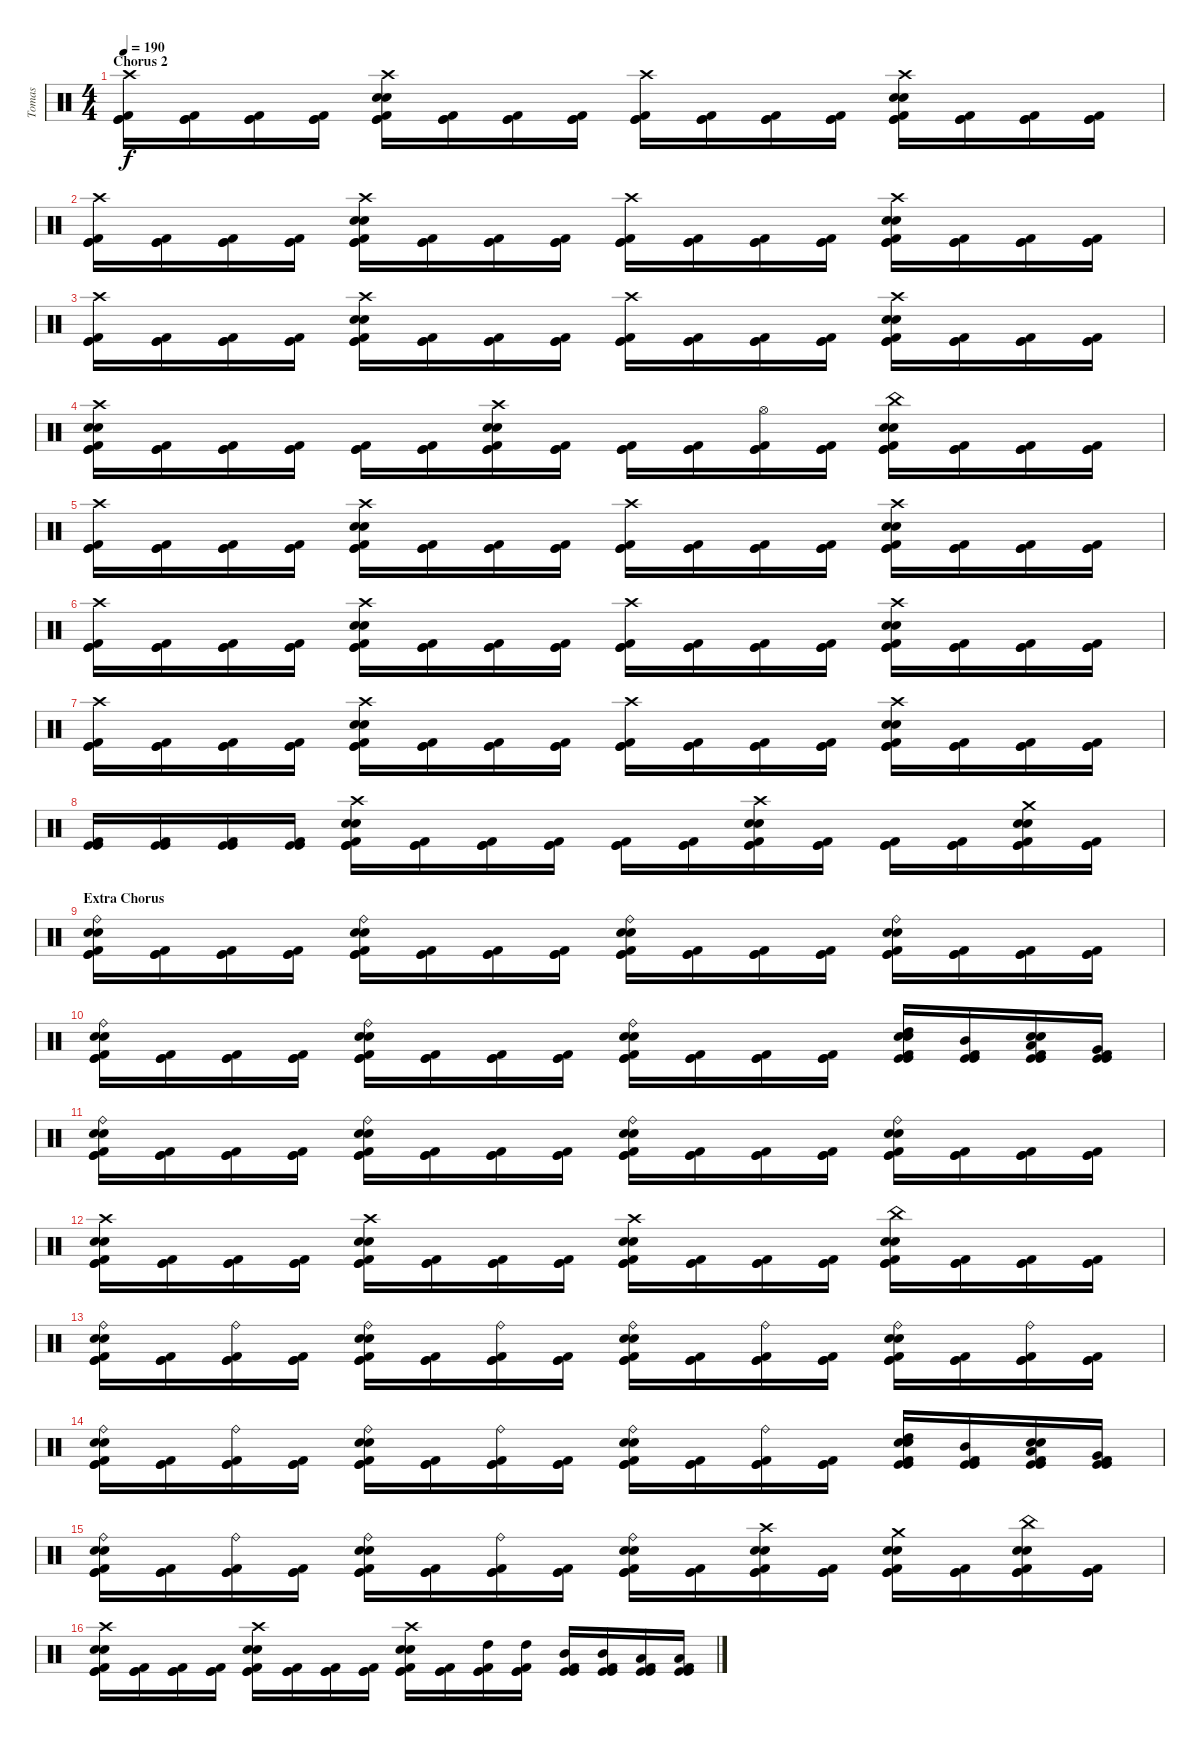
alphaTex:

\track ("Tomas" "Tomas") {instrument percussion}
\staff {score}
\articulation defaults
\ts (4 4)
\section ("" "Chorus 2")
\tempo 190
\clef neutral
\ks c
("Crash high (hit)" "Kick (hit)" "Kick (hit)" "Kick (hit) 2").16{dy f} ("Kick (hit)" "Kick (hit)" "Kick (hit) 2").16 ("Kick (hit)" "Kick (hit)" "Kick (hit) 2").16 ("Kick (hit)" "Kick (hit)" "Kick (hit) 2").16 ("Crash high (hit)" "Kick (hit)" "Electric Snare (hit)" "Electric Snare (hit)" "Kick (hit)" "Kick (hit) 2").16 ("Kick (hit)" "Kick (hit)" "Kick (hit) 2").16 ("Kick (hit)" "Kick (hit)" "Kick (hit) 2").16 ("Kick (hit)" "Kick (hit)" "Kick (hit) 2").16 ("Crash high (hit)" "Kick (hit)" "Kick (hit)" "Kick (hit) 2").16 ("Kick (hit)" "Kick (hit)" "Kick (hit) 2").16 ("Kick (hit)" "Kick (hit)" "Kick (hit) 2").16 ("Kick (hit)" "Kick (hit)" "Kick (hit) 2").16 ("Crash high (hit)" "Kick (hit)" "Electric Snare (hit)" "Electric Snare (hit)" "Kick (hit)" "Kick (hit) 2").16 ("Kick (hit)" "Kick (hit)" "Kick (hit) 2").16 ("Kick (hit)" "Kick (hit)" "Kick (hit) 2").16 ("Kick (hit)" "Kick (hit)" "Kick (hit) 2").16 |
("Crash high (hit)" "Kick (hit)" "Kick (hit)" "Kick (hit) 2").16 ("Kick (hit)" "Kick (hit)" "Kick (hit) 2").16 ("Kick (hit)" "Kick (hit)" "Kick (hit) 2").16 ("Kick (hit)" "Kick (hit)" "Kick (hit) 2").16 ("Crash high (hit)" "Kick (hit)" "Electric Snare (hit)" "Electric Snare (hit)" "Kick (hit)" "Kick (hit) 2").16 ("Kick (hit)" "Kick (hit)" "Kick (hit) 2").16 ("Kick (hit)" "Kick (hit)" "Kick (hit) 2").16 ("Kick (hit)" "Kick (hit)" "Kick (hit) 2").16 ("Crash high (hit)" "Kick (hit)" "Kick (hit)" "Kick (hit) 2").16 ("Kick (hit)" "Kick (hit)" "Kick (hit) 2").16 ("Kick (hit)" "Kick (hit)" "Kick (hit) 2").16 ("Kick (hit)" "Kick (hit)" "Kick (hit) 2").16 ("Crash high (hit)" "Kick (hit)" "Electric Snare (hit)" "Electric Snare (hit)" "Kick (hit)" "Kick (hit) 2").16 ("Kick (hit)" "Kick (hit)" "Kick (hit) 2").16 ("Kick (hit)" "Kick (hit)" "Kick (hit) 2").16 ("Kick (hit)" "Kick (hit)" "Kick (hit) 2").16 |
("Crash high (hit)" "Kick (hit)" "Kick (hit)" "Kick (hit) 2").16 ("Kick (hit)" "Kick (hit)" "Kick (hit) 2").16 ("Kick (hit)" "Kick (hit)" "Kick (hit) 2").16 ("Kick (hit)" "Kick (hit)" "Kick (hit) 2").16 ("Crash high (hit)" "Kick (hit)" "Electric Snare (hit)" "Electric Snare (hit)" "Kick (hit)" "Kick (hit) 2").16 ("Kick (hit)" "Kick (hit)" "Kick (hit) 2").16 ("Kick (hit)" "Kick (hit)" "Kick (hit) 2").16 ("Kick (hit)" "Kick (hit)" "Kick (hit) 2").16 ("Crash high (hit)" "Kick (hit)" "Kick (hit)" "Kick (hit) 2").16 ("Kick (hit)" "Kick (hit)" "Kick (hit) 2").16 ("Kick (hit)" "Kick (hit)" "Kick (hit) 2").16 ("Kick (hit)" "Kick (hit)" "Kick (hit) 2").16 ("Crash high (hit)" "Kick (hit)" "Electric Snare (hit)" "Electric Snare (hit)" "Kick (hit)" "Kick (hit) 2").16 ("Kick (hit)" "Kick (hit)" "Kick (hit) 2").16 ("Kick (hit)" "Kick (hit)" "Kick (hit) 2").16 ("Kick (hit)" "Kick (hit)" "Kick (hit) 2").16 |
("Crash high (hit)" "Kick (hit)" "Electric Snare (hit)" "Electric Snare (hit)" "Kick (hit)" "Kick (hit) 2").16 ("Kick (hit)" "Kick (hit)" "Kick (hit) 2").16 ("Kick (hit)" "Kick (hit)" "Kick (hit) 2").16 ("Kick (hit)" "Kick (hit)" "Kick (hit) 2").16 ("Kick (hit)" "Kick (hit)" "Kick (hit) 2").16 ("Kick (hit)" "Kick (hit)" "Kick (hit) 2").16 ("Crash high (hit)" "Kick (hit)" "Electric Snare (hit)" "Electric Snare (hit)" "Kick (hit)" "Kick (hit) 2").16 ("Kick (hit)" "Kick (hit)" "Kick (hit) 2").16 ("Kick (hit)" "Kick (hit)" "Kick (hit) 2").16 ("Kick (hit)" "Kick (hit)" "Kick (hit) 2").16 ("Hi-Hat (open)" "Kick (hit)" "Kick (hit)" "Kick (hit) 2").16 ("Kick (hit)" "Kick (hit)" "Kick (hit) 2").16 ("China (hit)" "Kick (hit)" "Electric Snare (hit)" "Electric Snare (hit)" "Kick (hit)" "Kick (hit) 2").16 ("Kick (hit)" "Kick (hit)" "Kick (hit) 2").16 ("Kick (hit)" "Kick (hit)" "Kick (hit) 2").16 ("Kick (hit)" "Kick (hit)" "Kick (hit) 2").16 |
("Crash high (hit)" "Kick (hit)" "Kick (hit)" "Kick (hit) 2").16 ("Kick (hit)" "Kick (hit)" "Kick (hit) 2").16 ("Kick (hit)" "Kick (hit)" "Kick (hit) 2").16 ("Kick (hit)" "Kick (hit)" "Kick (hit) 2").16 ("Crash high (hit)" "Kick (hit)" "Electric Snare (hit)" "Electric Snare (hit)" "Kick (hit)" "Kick (hit) 2").16 ("Kick (hit)" "Kick (hit)" "Kick (hit) 2").16 ("Kick (hit)" "Kick (hit)" "Kick (hit) 2").16 ("Kick (hit)" "Kick (hit)" "Kick (hit) 2").16 ("Crash high (hit)" "Kick (hit)" "Kick (hit)" "Kick (hit) 2").16 ("Kick (hit)" "Kick (hit)" "Kick (hit) 2").16 ("Kick (hit)" "Kick (hit)" "Kick (hit) 2").16 ("Kick (hit)" "Kick (hit)" "Kick (hit) 2").16 ("Crash high (hit)" "Kick (hit)" "Electric Snare (hit)" "Electric Snare (hit)" "Kick (hit)" "Kick (hit) 2").16 ("Kick (hit)" "Kick (hit)" "Kick (hit) 2").16 ("Kick (hit)" "Kick (hit)" "Kick (hit) 2").16 ("Kick (hit)" "Kick (hit)" "Kick (hit) 2").16 |
("Crash high (hit)" "Kick (hit)" "Kick (hit)" "Kick (hit) 2").16 ("Kick (hit)" "Kick (hit)" "Kick (hit) 2").16 ("Kick (hit)" "Kick (hit)" "Kick (hit) 2").16 ("Kick (hit)" "Kick (hit)" "Kick (hit) 2").16 ("Crash high (hit)" "Kick (hit)" "Electric Snare (hit)" "Electric Snare (hit)" "Kick (hit)" "Kick (hit) 2").16 ("Kick (hit)" "Kick (hit)" "Kick (hit) 2").16 ("Kick (hit)" "Kick (hit)" "Kick (hit) 2").16 ("Kick (hit)" "Kick (hit)" "Kick (hit) 2").16 ("Crash high (hit)" "Kick (hit)" "Kick (hit)" "Kick (hit) 2").16 ("Kick (hit)" "Kick (hit)" "Kick (hit) 2").16 ("Kick (hit)" "Kick (hit)" "Kick (hit) 2").16 ("Kick (hit)" "Kick (hit)" "Kick (hit) 2").16 ("Crash high (hit)" "Kick (hit)" "Electric Snare (hit)" "Electric Snare (hit)" "Kick (hit)" "Kick (hit) 2").16 ("Kick (hit)" "Kick (hit)" "Kick (hit) 2").16 ("Kick (hit)" "Kick (hit)" "Kick (hit) 2").16 ("Kick (hit)" "Kick (hit)" "Kick (hit) 2").16 |
("Crash high (hit)" "Kick (hit)" "Kick (hit)" "Kick (hit) 2").16 ("Kick (hit)" "Kick (hit)" "Kick (hit) 2").16 ("Kick (hit)" "Kick (hit)" "Kick (hit) 2").16 ("Kick (hit)" "Kick (hit)" "Kick (hit) 2").16 ("Crash high (hit)" "Kick (hit)" "Electric Snare (hit)" "Electric Snare (hit)" "Kick (hit)" "Kick (hit) 2").16 ("Kick (hit)" "Kick (hit)" "Kick (hit) 2").16 ("Kick (hit)" "Kick (hit)" "Kick (hit) 2").16 ("Kick (hit)" "Kick (hit)" "Kick (hit) 2").16 ("Crash high (hit)" "Kick (hit)" "Kick (hit)" "Kick (hit) 2").16 ("Kick (hit)" "Kick (hit)" "Kick (hit) 2").16 ("Kick (hit)" "Kick (hit)" "Kick (hit) 2").16 ("Kick (hit)" "Kick (hit)" "Kick (hit) 2").16 ("Crash high (hit)" "Kick (hit)" "Electric Snare (hit)" "Electric Snare (hit)" "Kick (hit)" "Kick (hit) 2").16 ("Kick (hit)" "Kick (hit)" "Kick (hit) 2").16 ("Kick (hit)" "Kick (hit)" "Kick (hit) 2").16 ("Kick (hit)" "Kick (hit)" "Kick (hit) 2").16 |
("Kick (hit)" "Kick (hit)" "Kick (hit) 2").16 ("Kick (hit)" "Kick (hit)" "Kick (hit) 2").16 ("Kick (hit)" "Kick (hit)" "Kick (hit) 2").16 ("Kick (hit)" "Kick (hit)" "Kick (hit) 2").16 ("Crash high (hit)" "Kick (hit)" "Electric Snare (hit)" "Electric Snare (hit)" "Kick (hit)" "Kick (hit) 2").16 ("Kick (hit)" "Kick (hit)" "Kick (hit) 2").16 ("Kick (hit)" "Kick (hit)" "Kick (hit) 2").16 ("Kick (hit)" "Kick (hit)" "Kick (hit) 2").16 ("Kick (hit)" "Kick (hit)" "Kick (hit) 2").16 ("Kick (hit)" "Kick (hit)" "Kick (hit) 2").16 ("Crash high (hit)" "Kick (hit)" "Electric Snare (hit)" "Electric Snare (hit)" "Kick (hit)" "Kick (hit) 2").16 ("Kick (hit)" "Kick (hit)" "Kick (hit) 2").16 ("Kick (hit)" "Kick (hit)" "Kick (hit) 2").16 ("Kick (hit)" "Kick (hit)" "Kick (hit) 2").16 ("Crash medium (hit)" "Kick (hit)" "Electric Snare (hit)" "Electric Snare (hit)" "Kick (hit)" "Kick (hit) 2").16 ("Kick (hit)" "Kick (hit)" "Kick (hit) 2").16 |
\section ("" "Extra Chorus")
("Ride (bell)" "Kick (hit)" "Electric Snare (hit)" "Electric Snare (hit)" "Kick (hit)" "Kick (hit) 2").16 ("Kick (hit)" "Kick (hit)" "Kick (hit) 2").16 ("Kick (hit)" "Kick (hit)" "Kick (hit) 2").16 ("Kick (hit)" "Kick (hit)" "Kick (hit) 2").16 ("Ride (bell)" "Kick (hit)" "Electric Snare (hit)" "Electric Snare (hit)" "Kick (hit)" "Kick (hit) 2").16 ("Kick (hit)" "Kick (hit)" "Kick (hit) 2").16 ("Kick (hit)" "Kick (hit)" "Kick (hit) 2").16 ("Kick (hit)" "Kick (hit)" "Kick (hit) 2").16 ("Ride (bell)" "Kick (hit)" "Electric Snare (hit)" "Electric Snare (hit)" "Kick (hit)" "Kick (hit) 2").16 ("Kick (hit)" "Kick (hit)" "Kick (hit) 2").16 ("Kick (hit)" "Kick (hit)" "Kick (hit) 2").16 ("Kick (hit)" "Kick (hit)" "Kick (hit) 2").16 ("Ride (bell)" "Kick (hit)" "Electric Snare (hit)" "Electric Snare (hit)" "Kick (hit)" "Kick (hit) 2").16 ("Kick (hit)" "Kick (hit)" "Kick (hit) 2").16 ("Kick (hit)" "Kick (hit)" "Kick (hit) 2").16 ("Kick (hit)" "Kick (hit)" "Kick (hit) 2").16 |
("Ride (bell)" "Kick (hit)" "Electric Snare (hit)" "Electric Snare (hit)" "Kick (hit)" "Kick (hit) 2").16 ("Kick (hit)" "Kick (hit)" "Kick (hit) 2").16 ("Kick (hit)" "Kick (hit)" "Kick (hit) 2").16 ("Kick (hit)" "Kick (hit)" "Kick (hit) 2").16 ("Ride (bell)" "Kick (hit)" "Electric Snare (hit)" "Electric Snare (hit)" "Kick (hit)" "Kick (hit) 2").16 ("Kick (hit)" "Kick (hit)" "Kick (hit) 2").16 ("Kick (hit)" "Kick (hit)" "Kick (hit) 2").16 ("Kick (hit)" "Kick (hit)" "Kick (hit) 2").16 ("Ride (bell)" "Kick (hit)" "Electric Snare (hit)" "Electric Snare (hit)" "Kick (hit)" "Kick (hit) 2").16 ("Kick (hit)" "Kick (hit)" "Kick (hit) 2").16 ("Kick (hit)" "Kick (hit)" "Kick (hit) 2").16 ("Kick (hit)" "Kick (hit)" "Kick (hit) 2").16 ("High Tom (hit)" "Kick (hit)" "Electric Snare (hit)" "Electric Snare (hit)" "Kick (hit)" "Kick (hit) 2").16 ("Mid Tom (hit)" "Kick (hit)" "Kick (hit)" "Kick (hit) 2").16 ("Low Tom (hit)" "Kick (hit)" "Electric Snare (hit)" "Electric Snare (hit)" "Kick (hit)" "Kick (hit) 2").16 ("Very Low Tom (hit)" "Kick (hit)" "Kick (hit)" "Kick (hit) 2").16 |
("Ride (bell)" "Kick (hit)" "Electric Snare (hit)" "Electric Snare (hit)" "Kick (hit)" "Kick (hit) 2").16 ("Kick (hit)" "Kick (hit)" "Kick (hit) 2").16 ("Kick (hit)" "Kick (hit)" "Kick (hit) 2").16 ("Kick (hit)" "Kick (hit)" "Kick (hit) 2").16 ("Ride (bell)" "Kick (hit)" "Electric Snare (hit)" "Electric Snare (hit)" "Kick (hit)" "Kick (hit) 2").16 ("Kick (hit)" "Kick (hit)" "Kick (hit) 2").16 ("Kick (hit)" "Kick (hit)" "Kick (hit) 2").16 ("Kick (hit)" "Kick (hit)" "Kick (hit) 2").16 ("Ride (bell)" "Kick (hit)" "Electric Snare (hit)" "Electric Snare (hit)" "Kick (hit)" "Kick (hit) 2").16 ("Kick (hit)" "Kick (hit)" "Kick (hit) 2").16 ("Kick (hit)" "Kick (hit)" "Kick (hit) 2").16 ("Kick (hit)" "Kick (hit)" "Kick (hit) 2").16 ("Ride (bell)" "Kick (hit)" "Electric Snare (hit)" "Electric Snare (hit)" "Kick (hit)" "Kick (hit) 2").16 ("Kick (hit)" "Kick (hit)" "Kick (hit) 2").16 ("Kick (hit)" "Kick (hit)" "Kick (hit) 2").16 ("Kick (hit)" "Kick (hit)" "Kick (hit) 2").16 |
("Crash high (hit)" "Kick (hit)" "Electric Snare (hit)" "Electric Snare (hit)" "Kick (hit)" "Kick (hit) 2").16 ("Kick (hit)" "Kick (hit)" "Kick (hit) 2").16 ("Kick (hit)" "Kick (hit)" "Kick (hit) 2").16 ("Kick (hit)" "Kick (hit)" "Kick (hit) 2").16 ("Crash high (hit)" "Kick (hit)" "Electric Snare (hit)" "Electric Snare (hit)" "Kick (hit)" "Kick (hit) 2").16 ("Kick (hit)" "Kick (hit)" "Kick (hit) 2").16 ("Kick (hit)" "Kick (hit)" "Kick (hit) 2").16 ("Kick (hit)" "Kick (hit)" "Kick (hit) 2").16 ("Crash high (hit)" "Kick (hit)" "Electric Snare (hit)" "Electric Snare (hit)" "Kick (hit)" "Kick (hit) 2").16 ("Kick (hit)" "Kick (hit)" "Kick (hit) 2").16 ("Kick (hit)" "Kick (hit)" "Kick (hit) 2").16 ("Kick (hit)" "Kick (hit)" "Kick (hit) 2").16 ("China (hit)" "Kick (hit)" "Electric Snare (hit)" "Electric Snare (hit)" "Kick (hit)" "Kick (hit) 2").16 ("Kick (hit)" "Kick (hit)" "Kick (hit) 2").16 ("Kick (hit)" "Kick (hit)" "Kick (hit) 2").16 ("Kick (hit)" "Kick (hit)" "Kick (hit) 2").16 |
("Ride (bell)" "Kick (hit)" "Electric Snare (hit)" "Electric Snare (hit)" "Kick (hit)" "Kick (hit) 2").16 ("Kick (hit)" "Kick (hit)" "Kick (hit) 2").16 ("Ride (bell)" "Kick (hit)" "Kick (hit)" "Kick (hit) 2").16 ("Kick (hit)" "Kick (hit)" "Kick (hit) 2").16 ("Ride (bell)" "Kick (hit)" "Electric Snare (hit)" "Electric Snare (hit)" "Kick (hit)" "Kick (hit) 2").16 ("Kick (hit)" "Kick (hit)" "Kick (hit) 2").16 ("Ride (bell)" "Kick (hit)" "Kick (hit)" "Kick (hit) 2").16 ("Kick (hit)" "Kick (hit)" "Kick (hit) 2").16 ("Ride (bell)" "Kick (hit)" "Electric Snare (hit)" "Electric Snare (hit)" "Kick (hit)" "Kick (hit) 2").16 ("Kick (hit)" "Kick (hit)" "Kick (hit) 2").16 ("Ride (bell)" "Kick (hit)" "Kick (hit)" "Kick (hit) 2").16 ("Kick (hit)" "Kick (hit)" "Kick (hit) 2").16 ("Ride (bell)" "Kick (hit)" "Electric Snare (hit)" "Electric Snare (hit)" "Kick (hit)" "Kick (hit) 2").16 ("Kick (hit)" "Kick (hit)" "Kick (hit) 2").16 ("Ride (bell)" "Kick (hit)" "Kick (hit)" "Kick (hit) 2").16 ("Kick (hit)" "Kick (hit)" "Kick (hit) 2").16 |
("Ride (bell)" "Kick (hit)" "Electric Snare (hit)" "Electric Snare (hit)" "Kick (hit)" "Kick (hit) 2").16 ("Kick (hit)" "Kick (hit)" "Kick (hit) 2").16 ("Ride (bell)" "Kick (hit)" "Kick (hit)" "Kick (hit) 2").16 ("Kick (hit)" "Kick (hit)" "Kick (hit) 2").16 ("Ride (bell)" "Kick (hit)" "Electric Snare (hit)" "Electric Snare (hit)" "Kick (hit)" "Kick (hit) 2").16 ("Kick (hit)" "Kick (hit)" "Kick (hit) 2").16 ("Ride (bell)" "Kick (hit)" "Kick (hit)" "Kick (hit) 2").16 ("Kick (hit)" "Kick (hit)" "Kick (hit) 2").16 ("Ride (bell)" "Kick (hit)" "Electric Snare (hit)" "Electric Snare (hit)" "Kick (hit)" "Kick (hit) 2").16 ("Kick (hit)" "Kick (hit)" "Kick (hit) 2").16 ("Ride (bell)" "Kick (hit)" "Kick (hit)" "Kick (hit) 2").16 ("Kick (hit)" "Kick (hit)" "Kick (hit) 2").16 ("High Tom (hit)" "Kick (hit)" "Electric Snare (hit)" "Electric Snare (hit)" "Kick (hit)" "Kick (hit) 2").16 ("Mid Tom (hit)" "Kick (hit)" "Kick (hit)" "Kick (hit) 2").16 ("Low Tom (hit)" "Kick (hit)" "Electric Snare (hit)" "Electric Snare (hit)" "Kick (hit)" "Kick (hit) 2").16 ("Very Low Tom (hit)" "Kick (hit)" "Kick (hit)" "Kick (hit) 2").16 |
("Ride (bell)" "Kick (hit)" "Electric Snare (hit)" "Electric Snare (hit)" "Kick (hit)" "Kick (hit) 2").16 ("Kick (hit)" "Kick (hit)" "Kick (hit) 2").16 ("Ride (bell)" "Kick (hit)" "Kick (hit)" "Kick (hit) 2").16 ("Kick (hit)" "Kick (hit)" "Kick (hit) 2").16 ("Ride (bell)" "Kick (hit)" "Electric Snare (hit)" "Electric Snare (hit)" "Kick (hit)" "Kick (hit) 2").16 ("Kick (hit)" "Kick (hit)" "Kick (hit) 2").16 ("Ride (bell)" "Kick (hit)" "Kick (hit)" "Kick (hit) 2").16 ("Kick (hit)" "Kick (hit)" "Kick (hit) 2").16 ("Ride (bell)" "Kick (hit)" "Electric Snare (hit)" "Electric Snare (hit)" "Kick (hit)" "Kick (hit) 2").16 ("Kick (hit)" "Kick (hit)" "Kick (hit) 2").16 ("Crash high (hit)" "Kick (hit)" "Electric Snare (hit)" "Electric Snare (hit)" "Kick (hit)" "Kick (hit) 2").16 ("Kick (hit)" "Kick (hit)" "Kick (hit) 2").16 ("Crash medium (hit)" "Kick (hit)" "Electric Snare (hit)" "Electric Snare (hit)" "Kick (hit)" "Kick (hit) 2").16 ("Kick (hit)" "Kick (hit)" "Kick (hit) 2").16 ("China (hit)" "Kick (hit)" "Electric Snare (hit)" "Electric Snare (hit)" "Kick (hit)" "Kick (hit) 2").16 ("Kick (hit)" "Kick (hit)" "Kick (hit) 2").16 |
("Crash high (hit)" "Kick (hit)" "Electric Snare (hit)" "Electric Snare (hit)" "Kick (hit)" "Kick (hit) 2").16 ("Kick (hit)" "Kick (hit)" "Kick (hit) 2").16 ("Kick (hit)" "Kick (hit)" "Kick (hit) 2").16 ("Kick (hit)" "Kick (hit)" "Kick (hit) 2").16 ("Crash high (hit)" "Kick (hit)" "Electric Snare (hit)" "Electric Snare (hit)" "Kick (hit)" "Kick (hit) 2").16 ("Kick (hit)" "Kick (hit)" "Kick (hit) 2").16 ("Kick (hit)" "Kick (hit)" "Kick (hit) 2").16 ("Kick (hit)" "Kick (hit)" "Kick (hit) 2").16 ("Crash high (hit)" "Kick (hit)" "Electric Snare (hit)" "Electric Snare (hit)" "Kick (hit)" "Kick (hit) 2").16 ("Kick (hit)" "Kick (hit)" "Kick (hit) 2").16 ("High Tom (hit)" "Kick (hit)" "Kick (hit)" "Kick (hit) 2").16 ("High Tom (hit)" "Kick (hit)" "Kick (hit)" "Kick (hit) 2").16 ("Mid Tom (hit)" "Kick (hit)" "Kick (hit)" "Kick (hit) 2").16 ("Mid Tom (hit)" "Kick (hit)" "Kick (hit)" "Kick (hit) 2").16 ("Low Tom (hit)" "Kick (hit)" "Kick (hit)" "Kick (hit) 2").16 ("Low Tom (hit)" "Kick (hit)" "Kick (hit)" "Kick (hit) 2").16
